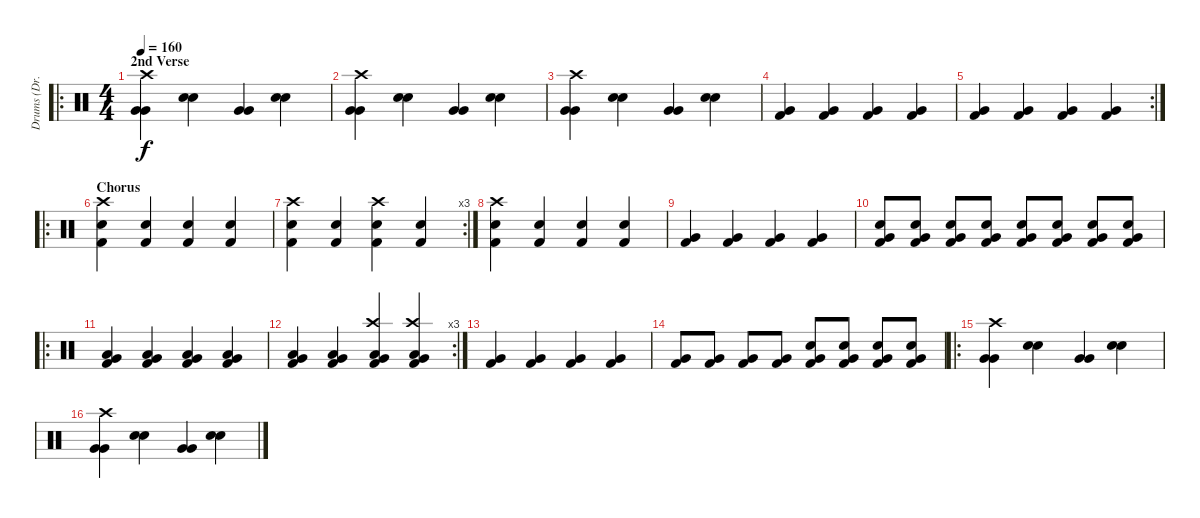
\track ("Drums (Dr. Chud)" "Drums (Dr.") {instrument percussion}
\staff {score}
\articulation defaults
\ro
\ts (4 4)
\section ("" "2nd Verse")
\tempo 160
\clef neutral
\ks c
("Very Low Tom (hit)" "Very Low Tom (hit)" "Crash high (hit)").4{dy f} ("Electric Snare (hit)" "Electric Snare (hit)").4 ("Very Low Tom (hit)" "Very Low Tom (hit)").4 ("Electric Snare (hit)" "Electric Snare (hit)").4 |
("Very Low Tom (hit)" "Very Low Tom (hit)" "Crash high (hit)").4 ("Electric Snare (hit)" "Electric Snare (hit)").4 ("Very Low Tom (hit)" "Very Low Tom (hit)").4 ("Electric Snare (hit)" "Electric Snare (hit)").4 |
("Very Low Tom (hit)" "Very Low Tom (hit)" "Crash high (hit)").4 ("Electric Snare (hit)" "Electric Snare (hit)").4 ("Very Low Tom (hit)" "Very Low Tom (hit)").4 ("Electric Snare (hit)" "Electric Snare (hit)").4 |
("Very Low Tom (hit)" "Kick (hit) 2").4 ("Very Low Tom (hit)" "Kick (hit) 2").4 ("Very Low Tom (hit)" "Kick (hit) 2").4 ("Very Low Tom (hit)" "Kick (hit) 2").4 |
\rc 2
("Very Low Tom (hit)" "Kick (hit) 2").4 ("Very Low Tom (hit)" "Kick (hit) 2").4 ("Very Low Tom (hit)" "Kick (hit) 2").4 ("Very Low Tom (hit)" "Kick (hit) 2").4 |
\ro
\section ("" "Chorus")
("Electric Snare (hit)" "Kick (hit) 2" "Crash high (hit)").4 ("Electric Snare (hit)" "Kick (hit) 2").4 ("Electric Snare (hit)" "Kick (hit) 2").4 ("Electric Snare (hit)" "Kick (hit) 2").4 |
\rc 3
("Electric Snare (hit)" "Kick (hit) 2" "Crash high (hit)").4 ("Electric Snare (hit)" "Kick (hit) 2").4 ("Electric Snare (hit)" "Kick (hit) 2" "Crash high (hit)").4 ("Electric Snare (hit)" "Kick (hit) 2").4 |
("Electric Snare (hit)" "Kick (hit) 2" "Crash high (hit)").4 ("Electric Snare (hit)" "Kick (hit) 2").4 ("Electric Snare (hit)" "Kick (hit) 2").4 ("Electric Snare (hit)" "Kick (hit) 2").4 |
("Very Low Tom (hit)" "Kick (hit) 2").4 ("Very Low Tom (hit)" "Kick (hit) 2").4 ("Very Low Tom (hit)" "Kick (hit) 2").4 ("Very Low Tom (hit)" "Kick (hit) 2").4 |
("Very Low Tom (hit)" "Kick (hit) 2" "Electric Snare (hit)").8 ("Very Low Tom (hit)" "Kick (hit) 2" "Electric Snare (hit)").8 ("Very Low Tom (hit)" "Kick (hit) 2" "Electric Snare (hit)").8 ("Very Low Tom (hit)" "Kick (hit) 2" "Electric Snare (hit)").8 ("Very Low Tom (hit)" "Kick (hit) 2" "Electric Snare (hit)").8 ("Very Low Tom (hit)" "Kick (hit) 2" "Electric Snare (hit)").8 ("Very Low Tom (hit)" "Kick (hit) 2" "Electric Snare (hit)").8 ("Very Low Tom (hit)" "Kick (hit) 2" "Electric Snare (hit)").8 |
\ro
("Very Low Tom (hit)" "Kick (hit) 2" "Low Floor Tom (hit)").4 ("Very Low Tom (hit)" "Kick (hit) 2" "Low Floor Tom (hit)").4 ("Very Low Tom (hit)" "Kick (hit) 2" "Low Floor Tom (hit)").4 ("Very Low Tom (hit)" "Kick (hit) 2" "Low Floor Tom (hit)").4 |
\rc 3
("Very Low Tom (hit)" "Kick (hit) 2" "Low Floor Tom (hit)").4 ("Very Low Tom (hit)" "Kick (hit) 2" "Low Floor Tom (hit)").4 ("Very Low Tom (hit)" "Kick (hit) 2" "Low Floor Tom (hit)" "Crash high (hit)").4 ("Very Low Tom (hit)" "Kick (hit) 2" "Low Floor Tom (hit)" "Crash high (hit)").4 |
("Very Low Tom (hit)" "Kick (hit) 2").4 ("Very Low Tom (hit)" "Kick (hit) 2").4 ("Very Low Tom (hit)" "Kick (hit) 2").4 ("Very Low Tom (hit)" "Kick (hit) 2").4 |
("Very Low Tom (hit)" "Kick (hit) 2").8 ("Very Low Tom (hit)" "Kick (hit) 2").8 ("Very Low Tom (hit)" "Kick (hit) 2").8 ("Very Low Tom (hit)" "Kick (hit) 2").8 ("Very Low Tom (hit)" "Kick (hit) 2" "Electric Snare (hit)").8 ("Very Low Tom (hit)" "Kick (hit) 2" "Electric Snare (hit)").8 ("Very Low Tom (hit)" "Kick (hit) 2" "Electric Snare (hit)").8 ("Very Low Tom (hit)" "Kick (hit) 2" "Electric Snare (hit)").8 |
\ro
("Very Low Tom (hit)" "Very Low Tom (hit)" "Crash high (hit)").4 ("Electric Snare (hit)" "Electric Snare (hit)").4 ("Very Low Tom (hit)" "Very Low Tom (hit)").4 ("Electric Snare (hit)" "Electric Snare (hit)").4 |
("Very Low Tom (hit)" "Very Low Tom (hit)" "Crash high (hit)").4 ("Electric Snare (hit)" "Electric Snare (hit)").4 ("Very Low Tom (hit)" "Very Low Tom (hit)").4 ("Electric Snare (hit)" "Electric Snare (hit)").4
